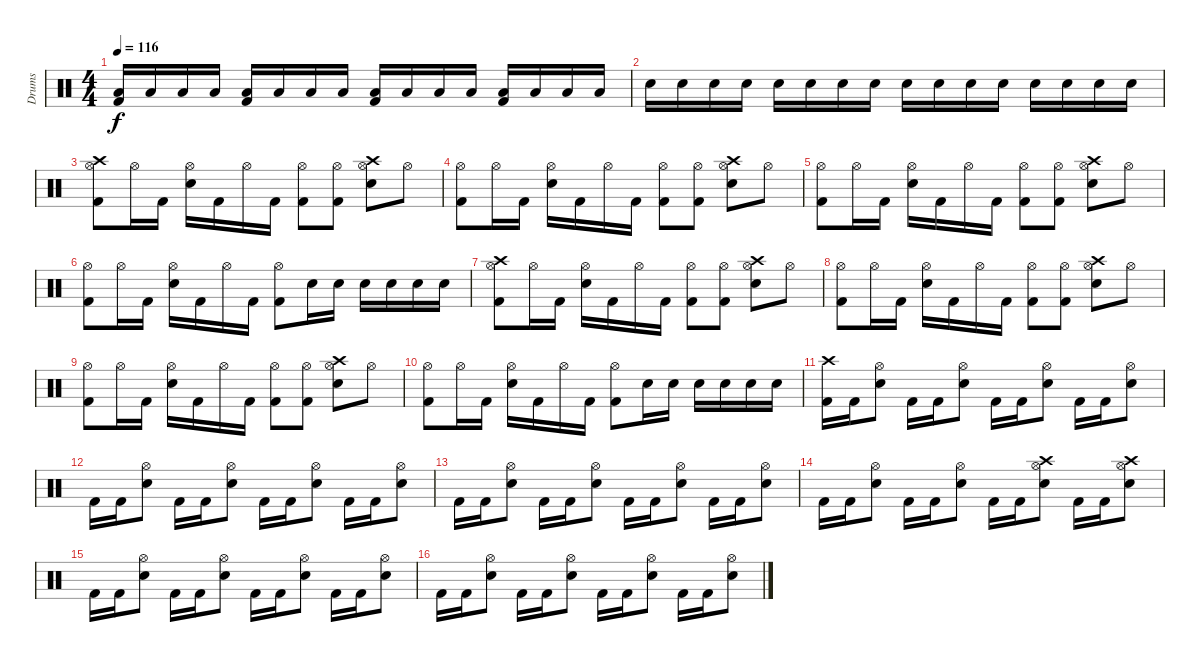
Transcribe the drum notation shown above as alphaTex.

\track ("Drums" "Drums") {instrument percussion}
\staff {score}
\articulation defaults
\ts (4 4)
\tempo 116
\clef neutral
\ks c
("Kick (hit) 2" "Low Floor Tom (hit)").16{dy f} "Low Floor Tom (hit)".16 "Low Floor Tom (hit)".16 "Low Floor Tom (hit)".16 ("Kick (hit) 2" "Low Floor Tom (hit)").16 "Low Floor Tom (hit)".16 "Low Floor Tom (hit)".16 "Low Floor Tom (hit)".16 ("Kick (hit) 2" "Low Floor Tom (hit)").16 "Low Floor Tom (hit)".16 "Low Floor Tom (hit)".16 "Low Floor Tom (hit)".16 ("Kick (hit) 2" "Low Floor Tom (hit)").16 "Low Floor Tom (hit)".16 "Low Floor Tom (hit)".16 "Low Floor Tom (hit)".16 |
"Snare (hit) 2".16 "Snare (hit) 2".16 "Snare (hit) 2".16 "Snare (hit) 2".16 "Snare (hit) 2".16 "Snare (hit) 2".16 "Snare (hit) 2".16 "Snare (hit) 2".16 "Snare (hit) 2".16 "Snare (hit) 2".16 "Snare (hit) 2".16 "Snare (hit) 2".16 "Snare (hit) 2".16 "Snare (hit) 2".16 "Snare (hit) 2".16 "Snare (hit) 2".16 |
("Crash high (hit)" "Hi-Hat (open)" "Kick (hit) 2").8 "Hi-Hat (open)".16 "Kick (hit) 2".16 ("Hi-Hat (open)" "Snare (hit) 2").16 "Kick (hit) 2".16 "Hi-Hat (open)".16 "Kick (hit) 2".16 ("Hi-Hat (open)" "Kick (hit) 2").8 ("Hi-Hat (open)" "Kick (hit) 2").8 ("Crash high (hit)" "Hi-Hat (open)" "Snare (hit) 2").8 "Hi-Hat (open)".8 |
("Hi-Hat (open)" "Kick (hit) 2").8 "Hi-Hat (open)".16 "Kick (hit) 2".16 ("Hi-Hat (open)" "Snare (hit) 2").16 "Kick (hit) 2".16 "Hi-Hat (open)".16 "Kick (hit) 2".16 ("Hi-Hat (open)" "Kick (hit) 2").8 ("Hi-Hat (open)" "Kick (hit) 2").8 ("Crash high (hit)" "Hi-Hat (open)" "Snare (hit) 2").8 "Hi-Hat (open)".8 |
("Hi-Hat (open)" "Kick (hit) 2").8 "Hi-Hat (open)".16 "Kick (hit) 2".16 ("Hi-Hat (open)" "Snare (hit) 2").16 "Kick (hit) 2".16 "Hi-Hat (open)".16 "Kick (hit) 2".16 ("Hi-Hat (open)" "Kick (hit) 2").8 ("Hi-Hat (open)" "Kick (hit) 2").8 ("Crash high (hit)" "Hi-Hat (open)" "Snare (hit) 2").8 "Hi-Hat (open)".8 |
("Hi-Hat (open)" "Kick (hit) 2").8 "Hi-Hat (open)".16 "Kick (hit) 2".16 ("Hi-Hat (open)" "Snare (hit) 2").16 "Kick (hit) 2".16 "Hi-Hat (open)".16 "Kick (hit) 2".16 ("Hi-Hat (open)" "Kick (hit) 2").8 "Snare (hit) 2".16 "Snare (hit) 2".16 "Snare (hit) 2".16 "Snare (hit) 2".16 "Snare (hit) 2".16 "Snare (hit) 2".16 |
("Crash high (hit)" "Hi-Hat (open)" "Kick (hit) 2").8 "Hi-Hat (open)".16 "Kick (hit) 2".16 ("Hi-Hat (open)" "Snare (hit) 2").16 "Kick (hit) 2".16 "Hi-Hat (open)".16 "Kick (hit) 2".16 ("Hi-Hat (open)" "Kick (hit) 2").8 ("Hi-Hat (open)" "Kick (hit) 2").8 ("Crash high (hit)" "Hi-Hat (open)" "Snare (hit) 2").8 "Hi-Hat (open)".8 |
("Hi-Hat (open)" "Kick (hit) 2").8 "Hi-Hat (open)".16 "Kick (hit) 2".16 ("Hi-Hat (open)" "Snare (hit) 2").16 "Kick (hit) 2".16 "Hi-Hat (open)".16 "Kick (hit) 2".16 ("Hi-Hat (open)" "Kick (hit) 2").8 ("Hi-Hat (open)" "Kick (hit) 2").8 ("Crash high (hit)" "Hi-Hat (open)" "Snare (hit) 2").8 "Hi-Hat (open)".8 |
("Hi-Hat (open)" "Kick (hit) 2").8 "Hi-Hat (open)".16 "Kick (hit) 2".16 ("Hi-Hat (open)" "Snare (hit) 2").16 "Kick (hit) 2".16 "Hi-Hat (open)".16 "Kick (hit) 2".16 ("Hi-Hat (open)" "Kick (hit) 2").8 ("Hi-Hat (open)" "Kick (hit) 2").8 ("Crash high (hit)" "Hi-Hat (open)" "Snare (hit) 2").8 "Hi-Hat (open)".8 |
("Hi-Hat (open)" "Kick (hit) 2").8 "Hi-Hat (open)".16 "Kick (hit) 2".16 ("Hi-Hat (open)" "Snare (hit) 2").16 "Kick (hit) 2".16 "Hi-Hat (open)".16 "Kick (hit) 2".16 ("Hi-Hat (open)" "Kick (hit) 2").8 "Snare (hit) 2".16 "Snare (hit) 2".16 "Snare (hit) 2".16 "Snare (hit) 2".16 "Snare (hit) 2".16 "Snare (hit) 2".16 |
("Crash high (hit)" "Kick (hit) 2").16{volume 13} "Kick (hit) 2".16 ("Hi-Hat (open)" "Snare (hit) 2").8 "Kick (hit) 2".16 "Kick (hit) 2".16 ("Hi-Hat (open)" "Snare (hit) 2").8 "Kick (hit) 2".16 "Kick (hit) 2".16 ("Hi-Hat (open)" "Snare (hit) 2").8 "Kick (hit) 2".16 "Kick (hit) 2".16 ("Hi-Hat (open)" "Snare (hit) 2").8 |
"Kick (hit) 2".16{volume 13} "Kick (hit) 2".16 ("Hi-Hat (open)" "Snare (hit) 2").8 "Kick (hit) 2".16 "Kick (hit) 2".16 ("Hi-Hat (open)" "Snare (hit) 2").8 "Kick (hit) 2".16 "Kick (hit) 2".16 ("Hi-Hat (open)" "Snare (hit) 2").8 "Kick (hit) 2".16 "Kick (hit) 2".16 ("Hi-Hat (open)" "Snare (hit) 2").8 |
"Kick (hit) 2".16{volume 13} "Kick (hit) 2".16 ("Hi-Hat (open)" "Snare (hit) 2").8 "Kick (hit) 2".16 "Kick (hit) 2".16 ("Hi-Hat (open)" "Snare (hit) 2").8 "Kick (hit) 2".16 "Kick (hit) 2".16 ("Hi-Hat (open)" "Snare (hit) 2").8 "Kick (hit) 2".16 "Kick (hit) 2".16 ("Hi-Hat (open)" "Snare (hit) 2").8 |
"Kick (hit) 2".16{volume 13} "Kick (hit) 2".16 ("Hi-Hat (open)" "Snare (hit) 2").8 "Kick (hit) 2".16 "Kick (hit) 2".16 ("Hi-Hat (open)" "Snare (hit) 2").8 "Kick (hit) 2".16 "Kick (hit) 2".16 ("Crash high (hit)" "Hi-Hat (open)" "Snare (hit) 2").8 "Kick (hit) 2".16 "Kick (hit) 2".16 ("Crash high (hit)" "Hi-Hat (open)" "Snare (hit) 2").8 |
"Kick (hit) 2".16{volume 13} "Kick (hit) 2".16 ("Hi-Hat (open)" "Snare (hit) 2").8 "Kick (hit) 2".16 "Kick (hit) 2".16 ("Hi-Hat (open)" "Snare (hit) 2").8 "Kick (hit) 2".16 "Kick (hit) 2".16 ("Hi-Hat (open)" "Snare (hit) 2").8 "Kick (hit) 2".16 "Kick (hit) 2".16 ("Hi-Hat (open)" "Snare (hit) 2").8 |
"Kick (hit) 2".16{volume 13} "Kick (hit) 2".16 ("Hi-Hat (open)" "Snare (hit) 2").8 "Kick (hit) 2".16 "Kick (hit) 2".16 ("Hi-Hat (open)" "Snare (hit) 2").8 "Kick (hit) 2".16 "Kick (hit) 2".16 ("Hi-Hat (open)" "Snare (hit) 2").8 "Kick (hit) 2".16 "Kick (hit) 2".16 ("Hi-Hat (open)" "Snare (hit) 2").8
